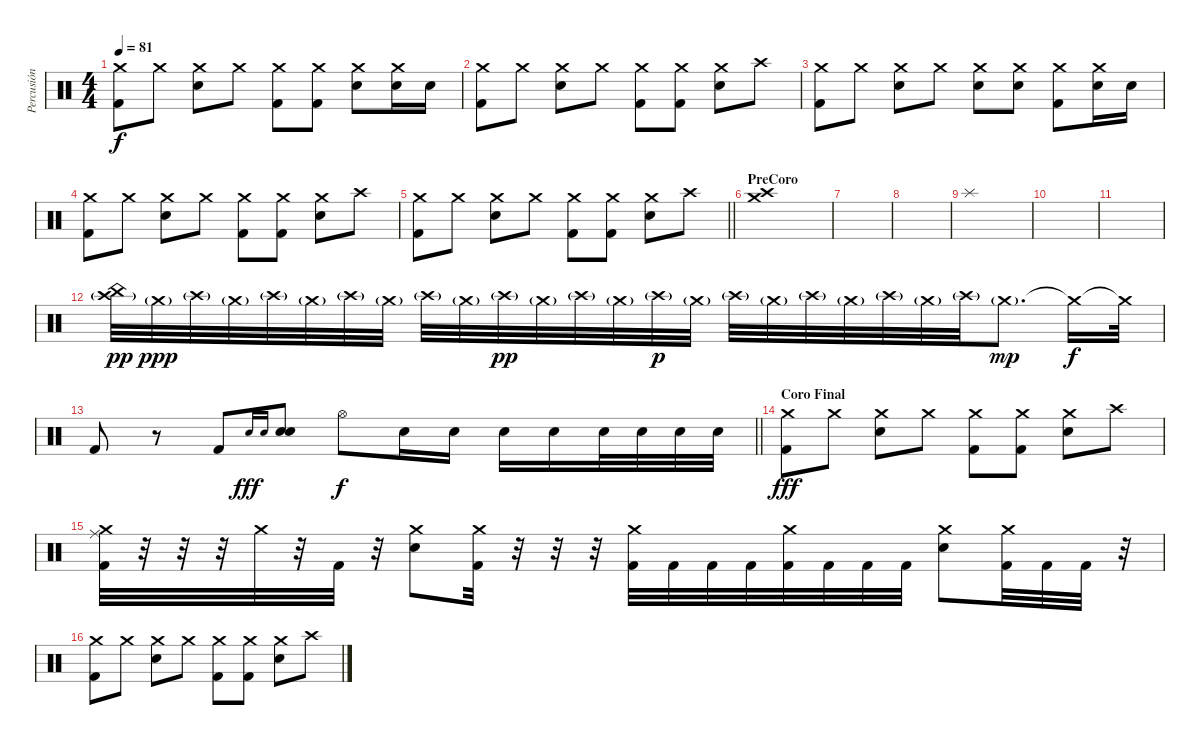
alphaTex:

\track ("Percusión" "Percusión") {instrument percussion}
\staff {score}
\articulation defaults
\ts (4 4)
\tempo 81
\clef neutral
\ks c
("Crash medium (hit)" "Kick (hit) 2").8{dy f} "Crash medium (hit)".8 ("Crash medium (hit)" "Electric Snare (hit)").8 "Crash medium (hit)".8 ("Crash medium (hit)" "Kick (hit) 2").8 ("Crash medium (hit)" "Kick (hit) 2").8 ("Crash medium (hit)" "Electric Snare (hit)").8 ("Crash medium (hit)" "Electric Snare (hit)").16 "Electric Snare (hit)".16 |
("Crash medium (hit)" "Kick (hit) 2").8 "Crash medium (hit)".8 ("Crash medium (hit)" "Electric Snare (hit)").8 "Crash medium (hit)".8 ("Crash medium (hit)" "Kick (hit) 2").8 ("Crash medium (hit)" "Kick (hit) 2").8 ("Crash medium (hit)" "Electric Snare (hit)").8 "Crash high (hit)".8 |
("Crash medium (hit)" "Kick (hit) 2").8 "Crash medium (hit)".8 ("Crash medium (hit)" "Electric Snare (hit)").8 "Crash medium (hit)".8 ("Crash medium (hit)" "Electric Snare (hit)").8 ("Crash medium (hit)" "Electric Snare (hit)").8 ("Crash medium (hit)" "Kick (hit) 2").8 ("Crash medium (hit)" "Electric Snare (hit)").16 "Electric Snare (hit)".16 |
("Crash medium (hit)" "Kick (hit) 2").8 "Crash medium (hit)".8 ("Crash medium (hit)" "Electric Snare (hit)").8 "Crash medium (hit)".8 ("Crash medium (hit)" "Kick (hit) 2").8 ("Crash medium (hit)" "Kick (hit) 2").8 ("Crash medium (hit)" "Electric Snare (hit)").8 "Crash high (hit)".8 |
\barLineRight lightlight
("Crash medium (hit)" "Kick (hit) 2").8 "Crash medium (hit)".8 ("Crash medium (hit)" "Electric Snare (hit)").8 "Crash medium (hit)".8 ("Crash medium (hit)" "Kick (hit) 2").8 ("Crash medium (hit)" "Kick (hit) 2").8 ("Crash medium (hit)" "Electric Snare (hit)").8 "Crash high (hit)".8 |
\section ("" "PreCoro")
("Crash medium (hit)" "Crash high (hit)").1 |
|
|
"Splash (hit)".1 |
|
|
("China (hit)" "Crash high (hit)"{g}).32{dy pp} "Crash medium (hit)"{g}.32{dy ppp} "Crash high (hit)"{g}.32 "Crash medium (hit)"{g}.32 "Crash high (hit)"{g}.32 "Crash medium (hit)"{g}.32 "Crash high (hit)"{g}.32 "Crash medium (hit)"{g}.32 "Crash high (hit)"{g}.32 "Crash medium (hit)"{g}.32 "Crash high (hit)"{g}.32{dy pp} "Crash medium (hit)"{g}.32 "Crash high (hit)"{g}.32 "Crash medium (hit)"{g}.32 "Crash high (hit)"{g}.32{dy p} "Crash medium (hit)"{g}.32 "Crash high (hit)"{g}.32 "Crash medium (hit)"{g}.32 "Crash high (hit)"{g}.32 "Crash medium (hit)"{g}.32 "Crash high (hit)"{g}.32 "Crash medium (hit)"{g}.32 "Crash high (hit)"{g}.32 "Crash medium (hit)"{g}.8{d dy mp} "Crash medium (hit)"{t}.16{dy f} "Crash medium (hit)"{t}.32 |
\barLineRight lightlight "Kick (hit) 2".8
r.8 "Kick (hit) 2".8 "Electric Snare (hit)".16{gr onbeat dy fff} "Electric Snare (hit)".16{gr onbeat} ("Electric Snare (hit)" "Electric Snare (hit)").8 "Hi-Hat (open)".8{dy f} "Electric Snare (hit)".16 "Electric Snare (hit)".16 "Electric Snare (hit)".16 "Electric Snare (hit)".16 "Electric Snare (hit)".32 "Electric Snare (hit)".32 "Electric Snare (hit)".32 "Electric Snare (hit)".32 |
\section ("" "Coro Final")
("Crash medium (hit)" "Kick (hit) 2").8{dy fff} "Crash medium (hit)".8 ("Crash medium (hit)" "Electric Snare (hit)").8 "Crash medium (hit)".8 ("Crash medium (hit)" "Kick (hit) 2").8 ("Crash medium (hit)" "Kick (hit) 2").8 ("Crash medium (hit)" "Electric Snare (hit)").8 "Crash high (hit)".8 |
("Ride (middle)" "Crash medium (hit)" "Kick (hit) 2").32 r.32 r.32 r.32 "Crash medium (hit)".32 r.32 "Kick (hit) 2".32 r.32 ("Crash medium (hit)" "Electric Snare (hit)").8 ("Crash medium (hit)" "Kick (hit) 2").32 r.32 r.32 r.32 ("Crash medium (hit)" "Kick (hit) 2").32 "Kick (hit) 2".32 "Kick (hit) 2".32 "Kick (hit) 2".32 ("Crash medium (hit)" "Kick (hit) 2").32 "Kick (hit) 2".32 "Kick (hit) 2".32 "Kick (hit) 2".32 ("Crash medium (hit)" "Electric Snare (hit)").8 ("Crash medium (hit)" "Kick (hit) 2").32 "Kick (hit) 2".32 "Kick (hit) 2".32 r.32 |
("Crash medium (hit)" "Kick (hit) 2").8 "Crash medium (hit)".8 ("Crash medium (hit)" "Electric Snare (hit)").8 "Crash medium (hit)".8 ("Crash medium (hit)" "Kick (hit) 2").8 ("Crash medium (hit)" "Kick (hit) 2").8 ("Crash medium (hit)" "Electric Snare (hit)").8 "Crash high (hit)".8
